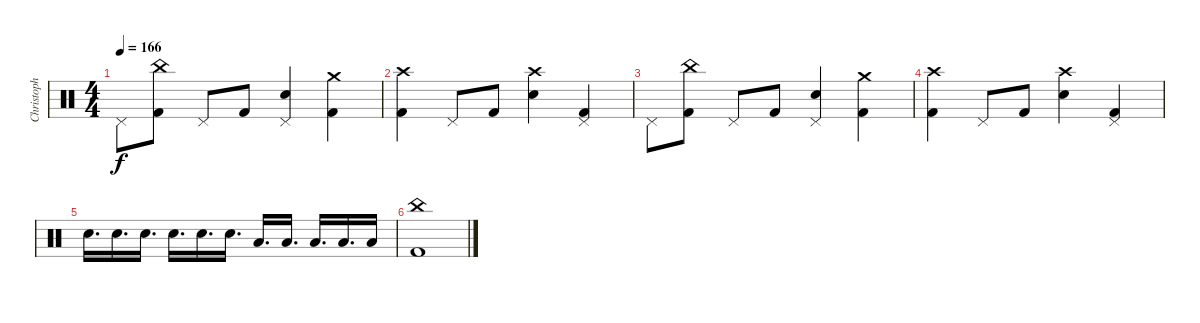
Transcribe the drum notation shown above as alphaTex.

\track ("Christoph" "Christoph") {instrument percussion}
\staff {score}
\articulation defaults
\ts (4 4)
\tempo 166
\clef neutral
\ks c "Pedal Hi-Hat (hit)".8{dy f}
("China (hit)" "Kick (hit) 2").8 "Pedal Hi-Hat (hit)".8 "Kick (hit) 2".8 ("Pedal Hi-Hat (hit)" "Electric Snare (hit)").4 ("Crash medium (hit)" "Kick (hit) 2").4 |
("Crash high (hit)" "Kick (hit) 2").4 "Pedal Hi-Hat (hit)".8 "Kick (hit) 2".8 ("Crash high (hit)" "Electric Snare (hit)").4 ("Pedal Hi-Hat (hit)" "Kick (hit) 2").4 |
"Pedal Hi-Hat (hit)".8 ("China (hit)" "Kick (hit) 2").8 "Pedal Hi-Hat (hit)".8 "Kick (hit) 2".8 ("Pedal Hi-Hat (hit)" "Electric Snare (hit)").4 ("Crash medium (hit)" "Kick (hit) 2").4 |
("Crash high (hit)" "Kick (hit) 2").4 "Pedal Hi-Hat (hit)".8 "Kick (hit) 2".8 ("Crash high (hit)" "Electric Snare (hit)").4 ("Pedal Hi-Hat (hit)" "Kick (hit) 2").4 |
"Electric Snare (hit)".16{d} "Electric Snare (hit)".16{d} "Electric Snare (hit)".16{d} "Electric Snare (hit)".16{d} "Electric Snare (hit)".16{d} "Electric Snare (hit)".16{d} "Low Floor Tom (hit)".16{d} "Low Floor Tom (hit)".16{d} "Low Floor Tom (hit)".16{d} "Low Floor Tom (hit)".16{d} "Low Floor Tom (hit)".16 |
("China (hit)" "Kick (hit) 2").1
